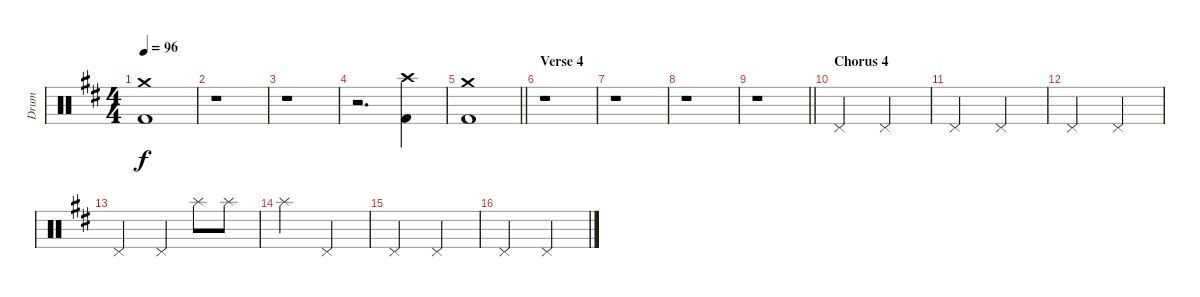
\track ("Drum" "Drum") {instrument percussion}
\staff {score}
\articulation defaults
\ts (4 4)
\tempo 96
\clef neutral
\ks d
("Kick (hit) 2" "Crash medium (hit)").1{dy f} |
r.1 |
r.1 |
r.2{d} ("Kick (hit) 2" "Crash high (hit)").4 |
\barLineRight lightlight
("Kick (hit) 2" "Crash medium (hit)").1 |
\section ("" "Verse 4")
r.1 |
r.1 |
r.1 |
\barLineRight lightlight
r.1 |
\section ("" "Chorus 4")
"Pedal Hi-Hat (hit)".2 "Pedal Hi-Hat (hit)".2 |
"Pedal Hi-Hat (hit)".2 "Pedal Hi-Hat (hit)".2 |
"Pedal Hi-Hat (hit)".2 "Pedal Hi-Hat (hit)".2 |
"Pedal Hi-Hat (hit)".2 "Pedal Hi-Hat (hit)".4 "Splash (hit)".8 "Splash (hit)".8 |
"Splash (hit)".2 "Pedal Hi-Hat (hit)".2 |
"Pedal Hi-Hat (hit)".2 "Pedal Hi-Hat (hit)".2 |
"Pedal Hi-Hat (hit)".2 "Pedal Hi-Hat (hit)".2
